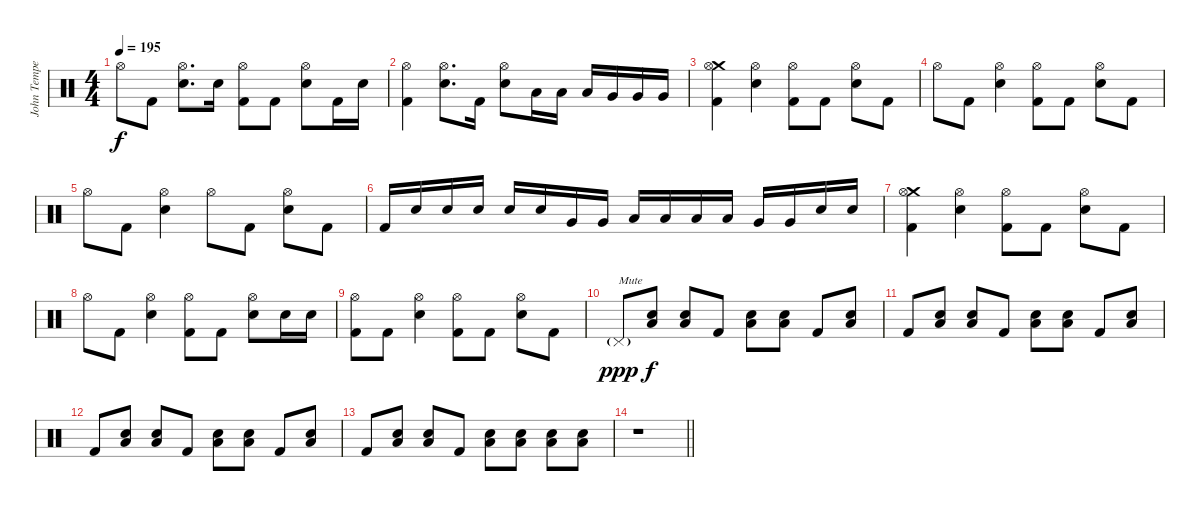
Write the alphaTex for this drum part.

\track ("John Tempesta" "John Tempe") {instrument percussion}
\staff {score}
\articulation defaults
\ts (4 4)
\tempo 195
\clef neutral
\ks c "Hi-Hat (open)".8{dy f} "Kick (hit) 2".8
("Hi-Hat (open)" "Electric Snare (hit)").8{d} "Electric Snare (hit)".16 ("Hi-Hat (open)" "Kick (hit) 2").8 "Kick (hit) 2".8 ("Hi-Hat (open)" "Electric Snare (hit)").8 "Kick (hit) 2".16 "Electric Snare (hit)".16 |
("Hi-Hat (open)" "Kick (hit) 2").4 ("Hi-Hat (open)" "Electric Snare (hit)").8{d} "Kick (hit) 2".16 ("Hi-Hat (open)" "Electric Snare (hit)").8 "Low Tom (hit)".16 "Low Tom (hit)".16 "Low Tom (hit)".16 "Very Low Tom (hit)".16 "Very Low Tom (hit)".16 "Very Low Tom (hit)".16 |
("Crash medium (hit)" "Hi-Hat (open)" "Kick (hit) 2").4 ("Hi-Hat (open)" "Electric Snare (hit)").4 ("Hi-Hat (open)" "Kick (hit) 2").8 "Kick (hit) 2".8 ("Hi-Hat (open)" "Electric Snare (hit)").8 "Kick (hit) 2".8 |
"Hi-Hat (open)".8 "Kick (hit) 2".8 ("Hi-Hat (open)" "Electric Snare (hit)").4 ("Hi-Hat (open)" "Kick (hit) 2").8 "Kick (hit) 2".8 ("Hi-Hat (open)" "Electric Snare (hit)").8 "Kick (hit) 2".8 |
"Hi-Hat (open)".8 "Kick (hit) 2".8 ("Hi-Hat (open)" "Electric Snare (hit)").4 "Hi-Hat (open)".8 "Kick (hit) 2".8 ("Hi-Hat (open)" "Electric Snare (hit)").8 "Kick (hit) 2".8 |
"Kick (hit) 2".16 "Electric Snare (hit)".16 "Electric Snare (hit)".16 "Electric Snare (hit)".16 "Electric Snare (hit)".16 "Electric Snare (hit)".16 "Very Low Tom (hit)".16 "Very Low Tom (hit)".16 "Low Floor Tom (hit)".16 "Low Floor Tom (hit)".16 "Low Floor Tom (hit)".16 "Low Floor Tom (hit)".16 "Very Low Tom (hit)".16 "Very Low Tom (hit)".16 "Electric Snare (hit)".16 "Electric Snare (hit)".16 |
("Crash medium (hit)" "Hi-Hat (open)" "Kick (hit) 2").4 ("Hi-Hat (open)" "Electric Snare (hit)").4 ("Hi-Hat (open)" "Kick (hit) 2").8 "Kick (hit) 2".8 ("Hi-Hat (open)" "Electric Snare (hit)").8 "Kick (hit) 2".8 |
"Hi-Hat (open)".8 "Kick (hit) 2".8 ("Hi-Hat (open)" "Electric Snare (hit)").4 ("Hi-Hat (open)" "Kick (hit) 2").8 "Kick (hit) 2".8 ("Hi-Hat (open)" "Electric Snare (hit)").8 "Electric Snare (hit)".16 "Electric Snare (hit)".16 |
("Hi-Hat (open)" "Kick (hit) 2").8 "Kick (hit) 2".8 ("Hi-Hat (open)" "Electric Snare (hit)").4 ("Hi-Hat (open)" "Kick (hit) 2").8 "Kick (hit) 2".8 ("Hi-Hat (open)" "Electric Snare (hit)").8 "Kick (hit) 2".8 |
"Pedal Hi-Hat (hit)"{g}.8{txt "Mute" dy ppp} ("Electric Snare (hit)" "Low Floor Tom (hit)").8{dy f} ("Electric Snare (hit)" "Low Floor Tom (hit)").8 "Kick (hit) 2".8 ("Electric Snare (hit)" "Low Floor Tom (hit)").8 ("Electric Snare (hit)" "Low Floor Tom (hit)").8 "Kick (hit) 2".8 ("Electric Snare (hit)" "Low Floor Tom (hit)").8 |
"Kick (hit) 2".8 ("Electric Snare (hit)" "Low Floor Tom (hit)").8 ("Electric Snare (hit)" "Low Floor Tom (hit)").8 "Kick (hit) 2".8 ("Electric Snare (hit)" "Low Floor Tom (hit)").8 ("Electric Snare (hit)" "Low Floor Tom (hit)").8 "Kick (hit) 2".8 ("Electric Snare (hit)" "Low Floor Tom (hit)").8 |
"Kick (hit) 2".8 ("Electric Snare (hit)" "Low Floor Tom (hit)").8 ("Electric Snare (hit)" "Low Floor Tom (hit)").8 "Kick (hit) 2".8 ("Electric Snare (hit)" "Low Floor Tom (hit)").8 ("Electric Snare (hit)" "Low Floor Tom (hit)").8 "Kick (hit) 2".8 ("Electric Snare (hit)" "Low Floor Tom (hit)").8 |
"Kick (hit) 2".8 ("Electric Snare (hit)" "Low Floor Tom (hit)").8 ("Electric Snare (hit)" "Low Floor Tom (hit)").8 "Kick (hit) 2".8 ("Electric Snare (hit)" "Low Floor Tom (hit)").8 ("Electric Snare (hit)" "Low Floor Tom (hit)").8 ("Electric Snare (hit)" "Low Floor Tom (hit)").8 ("Electric Snare (hit)" "Low Floor Tom (hit)").8 |
\barLineRight lightlight
r.1
